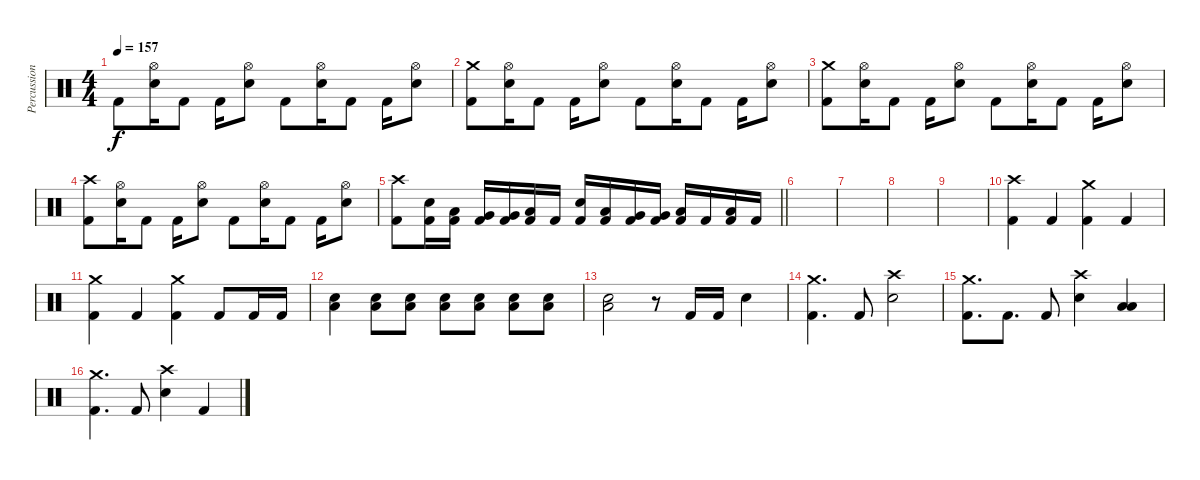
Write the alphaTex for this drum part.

\track ("Percussion" "Percussion") {instrument percussion}
\staff {score}
\articulation defaults
\ts (4 4)
\tempo 157
\clef neutral
\ks c "Kick (hit) 2".8{dy f}
("Hi-Hat (open)" "Electric Snare (hit)").16 "Kick (hit) 2".8 "Kick (hit) 2".16 ("Hi-Hat (open)" "Electric Snare (hit)").8 "Kick (hit) 2".8 ("Hi-Hat (open)" "Electric Snare (hit)").16 "Kick (hit) 2".8 "Kick (hit) 2".16 ("Hi-Hat (open)" "Electric Snare (hit)").8 |
("Crash medium (hit)" "Kick (hit) 2").8 ("Hi-Hat (open)" "Electric Snare (hit)").16 "Kick (hit) 2".8 "Kick (hit) 2".16 ("Hi-Hat (open)" "Electric Snare (hit)").8 "Kick (hit) 2".8 ("Hi-Hat (open)" "Electric Snare (hit)").16 "Kick (hit) 2".8 "Kick (hit) 2".16 ("Hi-Hat (open)" "Electric Snare (hit)").8 |
("Crash medium (hit)" "Kick (hit) 2").8 ("Hi-Hat (open)" "Electric Snare (hit)").16 "Kick (hit) 2".8 "Kick (hit) 2".16 ("Hi-Hat (open)" "Electric Snare (hit)").8 "Kick (hit) 2".8 ("Hi-Hat (open)" "Electric Snare (hit)").16 "Kick (hit) 2".8 "Kick (hit) 2".16 ("Hi-Hat (open)" "Electric Snare (hit)").8 |
("Crash high (hit)" "Kick (hit) 2").8 ("Hi-Hat (open)" "Electric Snare (hit)").16 "Kick (hit) 2".8 "Kick (hit) 2".16 ("Hi-Hat (open)" "Electric Snare (hit)").8 "Kick (hit) 2".8 ("Hi-Hat (open)" "Electric Snare (hit)").16 "Kick (hit) 2".8 "Kick (hit) 2".16 ("Hi-Hat (open)" "Electric Snare (hit)").8 |
\barLineRight lightlight
("Crash high (hit)" "Kick (hit) 2").8 ("Electric Snare (hit)" "Kick (hit) 2").16 ("Low Tom (hit)" "Kick (hit) 2").16 ("Very Low Tom (hit)" "Kick (hit) 2").16 ("Very Low Tom (hit)" "Kick (hit) 2").16 ("Low Floor Tom (hit)" "Kick (hit) 2").16 "Kick (hit) 2".16 ("Electric Snare (hit)" "Kick (hit) 2").16 ("Low Tom (hit)" "Kick (hit) 2").16 ("Very Low Tom (hit)" "Kick (hit) 2").16 ("Very Low Tom (hit)" "Kick (hit) 2").16 ("Low Floor Tom (hit)" "Kick (hit) 2").16 "Kick (hit) 2".16 ("Low Floor Tom (hit)" "Kick (hit) 2").16 "Kick (hit) 2".16 |
|
|
|
|
("Crash high (hit)" "Kick (hit) 2").4 "Kick (hit) 2".4 ("Crash medium (hit)" "Kick (hit) 2").4 "Kick (hit) 2".4 |
("Crash medium (hit)" "Kick (hit) 2").4 "Kick (hit) 2".4 ("Crash medium (hit)" "Kick (hit) 2").4 "Kick (hit) 2".8 "Kick (hit) 2".16 "Kick (hit) 2".16 |
("Low Floor Tom (hit)" "Electric Snare (hit)").4 ("Low Floor Tom (hit)" "Electric Snare (hit)").8 ("Low Floor Tom (hit)" "Electric Snare (hit)").8 ("Low Floor Tom (hit)" "Electric Snare (hit)").8 ("Low Floor Tom (hit)" "Electric Snare (hit)").8 ("Low Floor Tom (hit)" "Electric Snare (hit)").8 ("Low Floor Tom (hit)" "Electric Snare (hit)").8 |
("Low Floor Tom (hit)" "Electric Snare (hit)").2 r.8 "Kick (hit) 2".16 "Kick (hit) 2".16 "Electric Snare (hit)".4 |
("Crash medium (hit)" "Kick (hit) 2").4{d} "Kick (hit) 2".8 ("Crash high (hit)" "Electric Snare (hit)").2 |
("Crash medium (hit)" "Kick (hit) 2").8{d} "Kick (hit) 2".8{d} "Kick (hit) 2".8 ("Crash high (hit)" "Electric Snare (hit)").4 ("Low Tom (hit)" "Low Tom (hit)").4 |
("Crash medium (hit)" "Kick (hit) 2").4{d} "Kick (hit) 2".8 ("Crash high (hit)" "Electric Snare (hit)").4 "Kick (hit) 2".4
